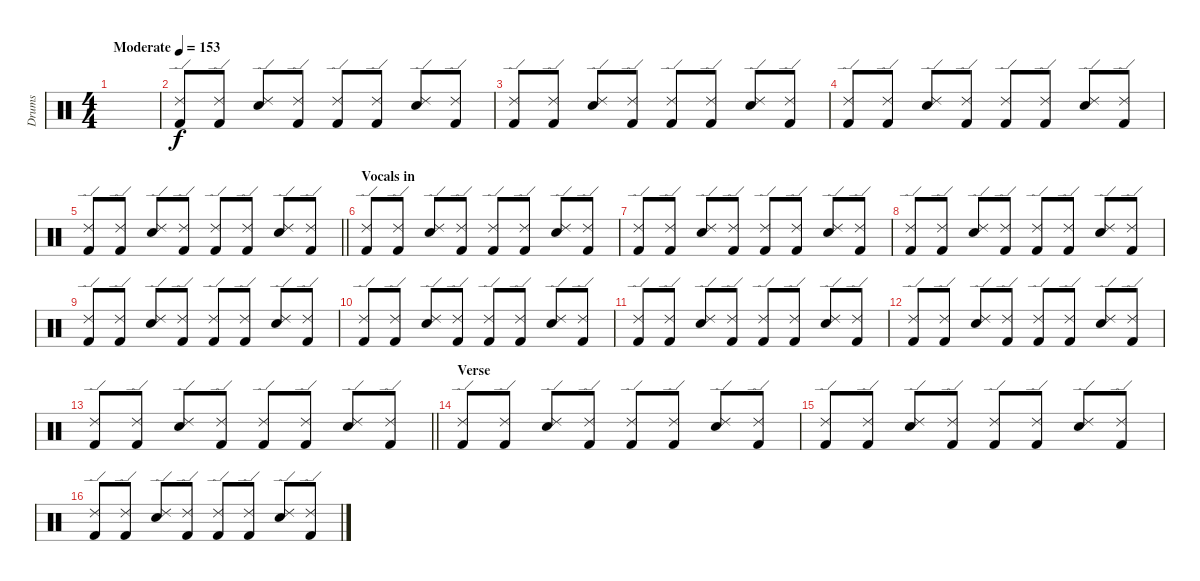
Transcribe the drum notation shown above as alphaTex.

\track ("Drums" "Drums") {instrument percussion}
\staff {score}
\articulation defaults
\ts (4 4)
\tempo (153 "Moderate")
\clef neutral
\ks c
|
("Kick (hit) 2" "Ride (edge) 2").8 ("Kick (hit) 2" "Ride (edge) 2").8 ("Electric Snare (hit)" "Ride (edge) 2").8 ("Kick (hit) 2" "Ride (edge) 2").8 ("Kick (hit) 2" "Ride (edge) 2").8 ("Kick (hit) 2" "Ride (edge) 2").8 ("Electric Snare (hit)" "Ride (edge) 2").8 ("Kick (hit) 2" "Ride (edge) 2").8 |
("Kick (hit) 2" "Ride (edge) 2").8 ("Kick (hit) 2" "Ride (edge) 2").8 ("Electric Snare (hit)" "Ride (edge) 2").8 ("Kick (hit) 2" "Ride (edge) 2").8 ("Kick (hit) 2" "Ride (edge) 2").8 ("Kick (hit) 2" "Ride (edge) 2").8 ("Electric Snare (hit)" "Ride (edge) 2").8 ("Kick (hit) 2" "Ride (edge) 2").8 |
("Kick (hit) 2" "Ride (edge) 2").8 ("Kick (hit) 2" "Ride (edge) 2").8 ("Electric Snare (hit)" "Ride (edge) 2").8 ("Kick (hit) 2" "Ride (edge) 2").8 ("Kick (hit) 2" "Ride (edge) 2").8 ("Kick (hit) 2" "Ride (edge) 2").8 ("Electric Snare (hit)" "Ride (edge) 2").8 ("Kick (hit) 2" "Ride (edge) 2").8 |
\barLineRight lightlight
("Kick (hit) 2" "Ride (edge) 2").8 ("Kick (hit) 2" "Ride (edge) 2").8 ("Electric Snare (hit)" "Ride (edge) 2").8 ("Kick (hit) 2" "Ride (edge) 2").8 ("Kick (hit) 2" "Ride (edge) 2").8 ("Kick (hit) 2" "Ride (edge) 2").8 ("Electric Snare (hit)" "Ride (edge) 2").8 ("Kick (hit) 2" "Ride (edge) 2").8 |
\section ("" "Vocals in")
("Kick (hit) 2" "Ride (edge) 2").8 ("Kick (hit) 2" "Ride (edge) 2").8 ("Electric Snare (hit)" "Ride (edge) 2").8 ("Kick (hit) 2" "Ride (edge) 2").8 ("Kick (hit) 2" "Ride (edge) 2").8 ("Kick (hit) 2" "Ride (edge) 2").8 ("Electric Snare (hit)" "Ride (edge) 2").8 ("Kick (hit) 2" "Ride (edge) 2").8 |
("Kick (hit) 2" "Ride (edge) 2").8 ("Kick (hit) 2" "Ride (edge) 2").8 ("Electric Snare (hit)" "Ride (edge) 2").8 ("Kick (hit) 2" "Ride (edge) 2").8 ("Kick (hit) 2" "Ride (edge) 2").8 ("Kick (hit) 2" "Ride (edge) 2").8 ("Electric Snare (hit)" "Ride (edge) 2").8 ("Kick (hit) 2" "Ride (edge) 2").8 |
("Kick (hit) 2" "Ride (edge) 2").8 ("Kick (hit) 2" "Ride (edge) 2").8 ("Electric Snare (hit)" "Ride (edge) 2").8 ("Kick (hit) 2" "Ride (edge) 2").8 ("Kick (hit) 2" "Ride (edge) 2").8 ("Kick (hit) 2" "Ride (edge) 2").8 ("Electric Snare (hit)" "Ride (edge) 2").8 ("Kick (hit) 2" "Ride (edge) 2").8 |
("Kick (hit) 2" "Ride (edge) 2").8 ("Kick (hit) 2" "Ride (edge) 2").8 ("Electric Snare (hit)" "Ride (edge) 2").8 ("Kick (hit) 2" "Ride (edge) 2").8 ("Kick (hit) 2" "Ride (edge) 2").8 ("Kick (hit) 2" "Ride (edge) 2").8 ("Electric Snare (hit)" "Ride (edge) 2").8 ("Kick (hit) 2" "Ride (edge) 2").8 |
("Kick (hit) 2" "Ride (edge) 2").8 ("Kick (hit) 2" "Ride (edge) 2").8 ("Electric Snare (hit)" "Ride (edge) 2").8 ("Kick (hit) 2" "Ride (edge) 2").8 ("Kick (hit) 2" "Ride (edge) 2").8 ("Kick (hit) 2" "Ride (edge) 2").8 ("Electric Snare (hit)" "Ride (edge) 2").8 ("Kick (hit) 2" "Ride (edge) 2").8 |
("Kick (hit) 2" "Ride (edge) 2").8 ("Kick (hit) 2" "Ride (edge) 2").8 ("Electric Snare (hit)" "Ride (edge) 2").8 ("Kick (hit) 2" "Ride (edge) 2").8 ("Kick (hit) 2" "Ride (edge) 2").8 ("Kick (hit) 2" "Ride (edge) 2").8 ("Electric Snare (hit)" "Ride (edge) 2").8 ("Kick (hit) 2" "Ride (edge) 2").8 |
("Kick (hit) 2" "Ride (edge) 2").8 ("Kick (hit) 2" "Ride (edge) 2").8 ("Electric Snare (hit)" "Ride (edge) 2").8 ("Kick (hit) 2" "Ride (edge) 2").8 ("Kick (hit) 2" "Ride (edge) 2").8 ("Kick (hit) 2" "Ride (edge) 2").8 ("Electric Snare (hit)" "Ride (edge) 2").8 ("Kick (hit) 2" "Ride (edge) 2").8 |
\barLineRight lightlight
("Kick (hit) 2" "Ride (edge) 2").8 ("Kick (hit) 2" "Ride (edge) 2").8 ("Electric Snare (hit)" "Ride (edge) 2").8 ("Kick (hit) 2" "Ride (edge) 2").8 ("Kick (hit) 2" "Ride (edge) 2").8 ("Kick (hit) 2" "Ride (edge) 2").8 ("Electric Snare (hit)" "Ride (edge) 2").8 ("Kick (hit) 2" "Ride (edge) 2").8 |
\section ("" "Verse")
("Kick (hit) 2" "Ride (edge) 2").8 ("Kick (hit) 2" "Ride (edge) 2").8 ("Electric Snare (hit)" "Ride (edge) 2").8 ("Kick (hit) 2" "Ride (edge) 2").8 ("Kick (hit) 2" "Ride (edge) 2").8 ("Kick (hit) 2" "Ride (edge) 2").8 ("Electric Snare (hit)" "Ride (edge) 2").8 ("Kick (hit) 2" "Ride (edge) 2").8 |
("Kick (hit) 2" "Ride (edge) 2").8 ("Kick (hit) 2" "Ride (edge) 2").8 ("Electric Snare (hit)" "Ride (edge) 2").8 ("Kick (hit) 2" "Ride (edge) 2").8 ("Kick (hit) 2" "Ride (edge) 2").8 ("Kick (hit) 2" "Ride (edge) 2").8 ("Electric Snare (hit)" "Ride (edge) 2").8 ("Kick (hit) 2" "Ride (edge) 2").8 |
("Kick (hit) 2" "Ride (edge) 2").8 ("Kick (hit) 2" "Ride (edge) 2").8 ("Electric Snare (hit)" "Ride (edge) 2").8 ("Kick (hit) 2" "Ride (edge) 2").8 ("Kick (hit) 2" "Ride (edge) 2").8 ("Kick (hit) 2" "Ride (edge) 2").8 ("Electric Snare (hit)" "Ride (edge) 2").8 ("Kick (hit) 2" "Ride (edge) 2").8
